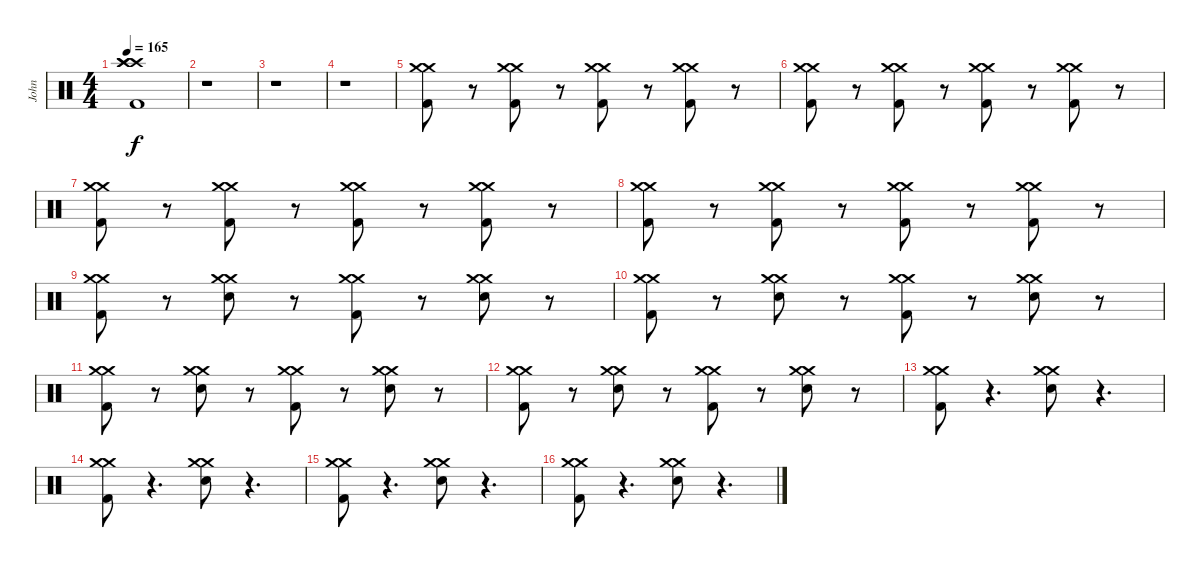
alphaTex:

\track ("John" "John") {instrument percussion}
\staff {score}
\articulation defaults
\ts (4 4)
\tempo 165
\clef neutral
\ks c
("Crash high (hit)" "Crash high (hit)" "Crash high (hit)" "Kick (hit) 2").1{dy f} |
r.1 |
r.1 |
r.1 |
("Crash medium (hit)" "Crash medium (hit)" "Kick (hit) 2").8 r.8 ("Crash medium (hit)" "Crash medium (hit)" "Kick (hit) 2").8 r.8 ("Crash medium (hit)" "Crash medium (hit)" "Kick (hit) 2").8 r.8 ("Crash medium (hit)" "Crash medium (hit)" "Kick (hit) 2").8 r.8 |
("Crash medium (hit)" "Crash medium (hit)" "Kick (hit) 2").8 r.8 ("Crash medium (hit)" "Crash medium (hit)" "Kick (hit) 2").8 r.8 ("Crash medium (hit)" "Crash medium (hit)" "Kick (hit) 2").8 r.8 ("Crash medium (hit)" "Crash medium (hit)" "Kick (hit) 2").8 r.8 |
("Crash medium (hit)" "Crash medium (hit)" "Kick (hit) 2").8 r.8 ("Crash medium (hit)" "Crash medium (hit)" "Kick (hit) 2").8 r.8 ("Crash medium (hit)" "Crash medium (hit)" "Kick (hit) 2").8 r.8 ("Crash medium (hit)" "Crash medium (hit)" "Kick (hit) 2").8 r.8 |
("Crash medium (hit)" "Crash medium (hit)" "Kick (hit) 2").8 r.8 ("Crash medium (hit)" "Crash medium (hit)" "Kick (hit) 2").8 r.8 ("Crash medium (hit)" "Crash medium (hit)" "Kick (hit) 2").8 r.8 ("Crash medium (hit)" "Crash medium (hit)" "Kick (hit) 2").8 r.8 |
("Crash medium (hit)" "Crash medium (hit)" "Kick (hit) 2").8 r.8 ("Crash medium (hit)" "Crash medium (hit)" "Electric Snare (hit)").8 r.8 ("Crash medium (hit)" "Crash medium (hit)" "Kick (hit) 2").8 r.8 ("Crash medium (hit)" "Crash medium (hit)" "Electric Snare (hit)").8 r.8 |
("Crash medium (hit)" "Crash medium (hit)" "Kick (hit) 2").8 r.8 ("Crash medium (hit)" "Crash medium (hit)" "Electric Snare (hit)").8 r.8 ("Crash medium (hit)" "Crash medium (hit)" "Kick (hit) 2").8 r.8 ("Crash medium (hit)" "Crash medium (hit)" "Electric Snare (hit)").8 r.8 |
("Crash medium (hit)" "Crash medium (hit)" "Kick (hit) 2").8 r.8 ("Crash medium (hit)" "Crash medium (hit)" "Electric Snare (hit)").8 r.8 ("Crash medium (hit)" "Crash medium (hit)" "Kick (hit) 2").8 r.8 ("Crash medium (hit)" "Crash medium (hit)" "Electric Snare (hit)").8 r.8 |
("Crash medium (hit)" "Crash medium (hit)" "Kick (hit) 2").8 r.8 ("Crash medium (hit)" "Crash medium (hit)" "Electric Snare (hit)").8 r.8 ("Crash medium (hit)" "Crash medium (hit)" "Kick (hit) 2").8 r.8 ("Crash medium (hit)" "Crash medium (hit)" "Electric Snare (hit)").8 r.8 |
("Crash medium (hit)" "Crash medium (hit)" "Kick (hit) 2").8 r.4{d} ("Crash medium (hit)" "Crash medium (hit)" "Electric Snare (hit)").8 r.4{d} |
("Crash medium (hit)" "Crash medium (hit)" "Kick (hit) 2").8 r.4{d} ("Crash medium (hit)" "Crash medium (hit)" "Electric Snare (hit)").8 r.4{d} |
("Crash medium (hit)" "Crash medium (hit)" "Kick (hit) 2").8 r.4{d} ("Crash medium (hit)" "Crash medium (hit)" "Electric Snare (hit)").8 r.4{d} |
("Crash medium (hit)" "Crash medium (hit)" "Kick (hit) 2").8 r.4{d} ("Crash medium (hit)" "Crash medium (hit)" "Electric Snare (hit)").8 r.4{d}
